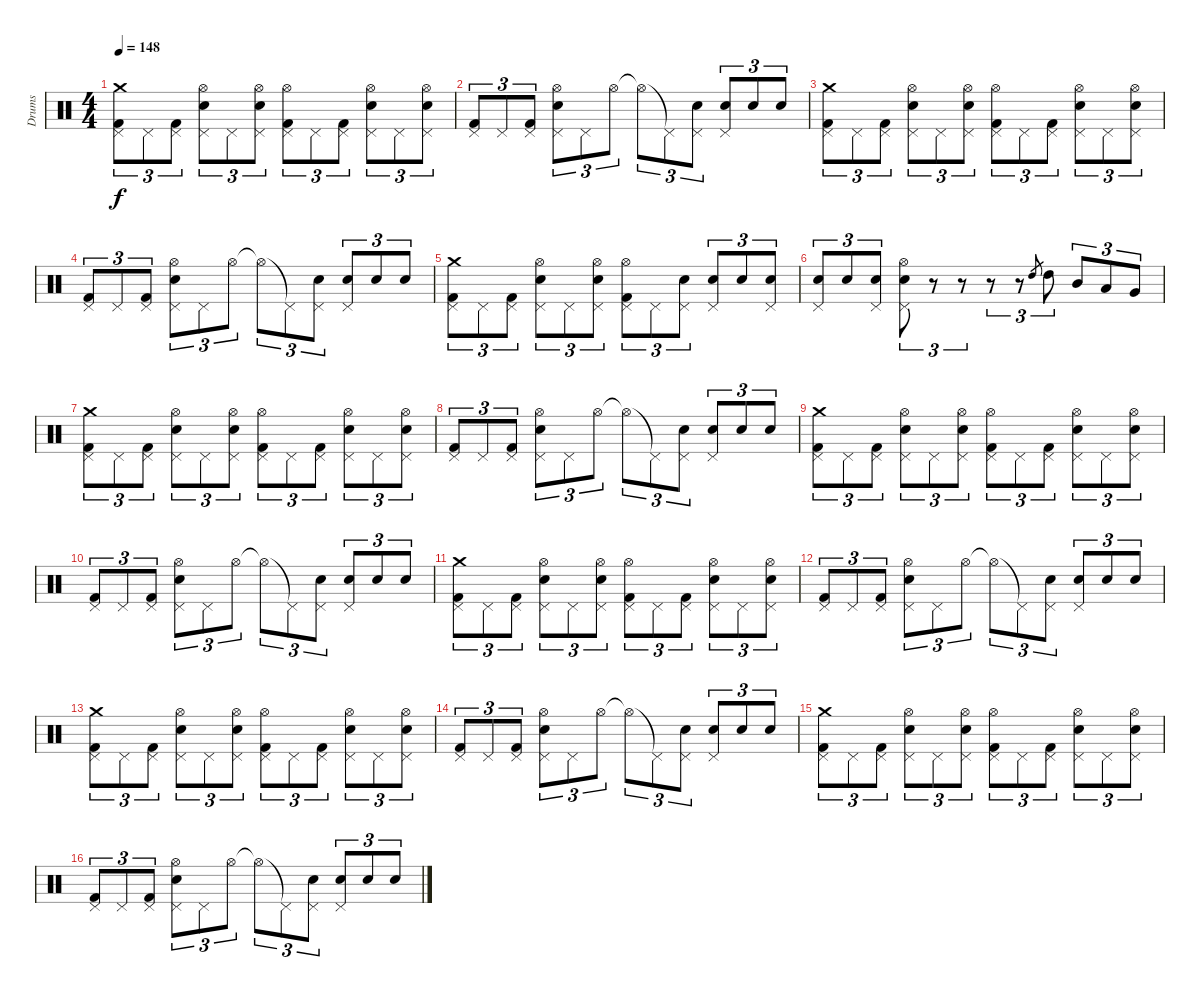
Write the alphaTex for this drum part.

\track ("Drums" "Drums") {instrument percussion}
\staff {score}
\articulation defaults
\ts (4 4)
\tempo 148
\clef neutral
\ks c
("Kick (hit) 2" "Pedal Hi-Hat (hit)" "Crash medium (hit)").8{tu (3 2) dy f} "Pedal Hi-Hat (hit)".8{tu (3 2)} ("Kick (hit) 2" "Pedal Hi-Hat (hit)").8{tu (3 2)} ("Snare (hit) 2" "Pedal Hi-Hat (hit)" "Hi-Hat (open)").8{tu (3 2)} "Pedal Hi-Hat (hit)".8{tu (3 2)} ("Snare (hit) 2" "Pedal Hi-Hat (hit)" "Hi-Hat (open)").8{tu (3 2)} ("Kick (hit) 2" "Pedal Hi-Hat (hit)" "Hi-Hat (open)").8{tu (3 2)} "Pedal Hi-Hat (hit)".8{tu (3 2)} ("Kick (hit) 2" "Pedal Hi-Hat (hit)").8{tu (3 2)} ("Snare (hit) 2" "Pedal Hi-Hat (hit)" "Hi-Hat (open)").8{tu (3 2)} "Pedal Hi-Hat (hit)".8{tu (3 2)} ("Snare (hit) 2" "Pedal Hi-Hat (hit)" "Hi-Hat (open)").8{tu (3 2)} |
("Kick (hit) 2" "Pedal Hi-Hat (hit)").8{tu (3 2)} "Pedal Hi-Hat (hit)".8{tu (3 2)} ("Kick (hit) 2" "Pedal Hi-Hat (hit)").8{tu (3 2)} ("Snare (hit) 2" "Pedal Hi-Hat (hit)" "Hi-Hat (open)").8{tu (3 2)} "Pedal Hi-Hat (hit)".8{tu (3 2)} "Hi-Hat (open)".8{tu (3 2)} "Hi-Hat (open)"{t}.8{tu (3 2)} "Pedal Hi-Hat (hit)"{t}.8{tu (3 2)} ("Snare (hit) 2" "Pedal Hi-Hat (hit)").8{tu (3 2)} ("Snare (hit) 2" "Pedal Hi-Hat (hit)").8{tu (3 2)} "Snare (hit) 2".8{tu (3 2)} "Snare (hit) 2".8{tu (3 2)} |
("Kick (hit) 2" "Pedal Hi-Hat (hit)" "Crash medium (hit)").8{tu (3 2)} "Pedal Hi-Hat (hit)".8{tu (3 2)} ("Kick (hit) 2" "Pedal Hi-Hat (hit)").8{tu (3 2)} ("Snare (hit) 2" "Pedal Hi-Hat (hit)" "Hi-Hat (open)").8{tu (3 2)} "Pedal Hi-Hat (hit)".8{tu (3 2)} ("Snare (hit) 2" "Pedal Hi-Hat (hit)" "Hi-Hat (open)").8{tu (3 2)} ("Kick (hit) 2" "Pedal Hi-Hat (hit)" "Hi-Hat (open)").8{tu (3 2)} "Pedal Hi-Hat (hit)".8{tu (3 2)} ("Kick (hit) 2" "Pedal Hi-Hat (hit)").8{tu (3 2)} ("Snare (hit) 2" "Pedal Hi-Hat (hit)" "Hi-Hat (open)").8{tu (3 2)} "Pedal Hi-Hat (hit)".8{tu (3 2)} ("Snare (hit) 2" "Pedal Hi-Hat (hit)" "Hi-Hat (open)").8{tu (3 2)} |
("Kick (hit) 2" "Pedal Hi-Hat (hit)").8{tu (3 2)} "Pedal Hi-Hat (hit)".8{tu (3 2)} ("Kick (hit) 2" "Pedal Hi-Hat (hit)").8{tu (3 2)} ("Snare (hit) 2" "Pedal Hi-Hat (hit)" "Hi-Hat (open)").8{tu (3 2)} "Pedal Hi-Hat (hit)".8{tu (3 2)} "Hi-Hat (open)".8{tu (3 2)} "Hi-Hat (open)"{t}.8{tu (3 2)} "Pedal Hi-Hat (hit)"{t}.8{tu (3 2)} ("Snare (hit) 2" "Pedal Hi-Hat (hit)").8{tu (3 2)} ("Snare (hit) 2" "Pedal Hi-Hat (hit)").8{tu (3 2)} "Snare (hit) 2".8{tu (3 2)} "Snare (hit) 2".8{tu (3 2)} |
("Kick (hit) 2" "Pedal Hi-Hat (hit)" "Crash medium (hit)").8{tu (3 2)} "Pedal Hi-Hat (hit)".8{tu (3 2)} ("Kick (hit) 2" "Pedal Hi-Hat (hit)").8{tu (3 2)} ("Snare (hit) 2" "Pedal Hi-Hat (hit)" "Hi-Hat (open)").8{tu (3 2)} "Pedal Hi-Hat (hit)".8{tu (3 2)} ("Snare (hit) 2" "Pedal Hi-Hat (hit)" "Hi-Hat (open)").8{tu (3 2)} ("Kick (hit) 2" "Pedal Hi-Hat (hit)" "Hi-Hat (open)").8{tu (3 2)} "Pedal Hi-Hat (hit)".8{tu (3 2)} ("Snare (hit) 2" "Pedal Hi-Hat (hit)").8{tu (3 2)} ("Snare (hit) 2" "Pedal Hi-Hat (hit)").8{tu (3 2)} "Snare (hit) 2".8{tu (3 2)} ("Snare (hit) 2" "Pedal Hi-Hat (hit)").8{tu (3 2)} |
("Snare (hit) 2" "Pedal Hi-Hat (hit)").8{tu (3 2)} "Snare (hit) 2".8{tu (3 2)} ("Snare (hit) 2" "Pedal Hi-Hat (hit)").8{tu (3 2)} ("Snare (hit) 2" "Pedal Hi-Hat (hit)" "Hi-Hat (open)").8{tu (3 2)} r.8{tu (3 2)} r.8{tu (3 2)} r.8{tu (3 2)} r.8{tu (3 2)} "High Tom (hit)".8{gr} "High Tom (hit)".8{tu (3 2)} "Mid Tom (hit)".8{tu (3 2)} "Low Tom (hit)".8{tu (3 2)} "Very Low Tom (hit)".8{tu (3 2)} |
("Kick (hit) 2" "Pedal Hi-Hat (hit)" "Crash medium (hit)").8{tu (3 2)} "Pedal Hi-Hat (hit)".8{tu (3 2)} ("Kick (hit) 2" "Pedal Hi-Hat (hit)").8{tu (3 2)} ("Snare (hit) 2" "Pedal Hi-Hat (hit)" "Hi-Hat (open)").8{tu (3 2)} "Pedal Hi-Hat (hit)".8{tu (3 2)} ("Snare (hit) 2" "Pedal Hi-Hat (hit)" "Hi-Hat (open)").8{tu (3 2)} ("Kick (hit) 2" "Pedal Hi-Hat (hit)" "Hi-Hat (open)").8{tu (3 2)} "Pedal Hi-Hat (hit)".8{tu (3 2)} ("Kick (hit) 2" "Pedal Hi-Hat (hit)").8{tu (3 2)} ("Snare (hit) 2" "Pedal Hi-Hat (hit)" "Hi-Hat (open)").8{tu (3 2)} "Pedal Hi-Hat (hit)".8{tu (3 2)} ("Snare (hit) 2" "Pedal Hi-Hat (hit)" "Hi-Hat (open)").8{tu (3 2)} |
("Kick (hit) 2" "Pedal Hi-Hat (hit)").8{tu (3 2)} "Pedal Hi-Hat (hit)".8{tu (3 2)} ("Kick (hit) 2" "Pedal Hi-Hat (hit)").8{tu (3 2)} ("Snare (hit) 2" "Pedal Hi-Hat (hit)" "Hi-Hat (open)").8{tu (3 2)} "Pedal Hi-Hat (hit)".8{tu (3 2)} "Hi-Hat (open)".8{tu (3 2)} "Hi-Hat (open)"{t}.8{tu (3 2)} "Pedal Hi-Hat (hit)"{t}.8{tu (3 2)} ("Snare (hit) 2" "Pedal Hi-Hat (hit)").8{tu (3 2)} ("Snare (hit) 2" "Pedal Hi-Hat (hit)").8{tu (3 2)} "Snare (hit) 2".8{tu (3 2)} "Snare (hit) 2".8{tu (3 2)} |
("Kick (hit) 2" "Pedal Hi-Hat (hit)" "Crash medium (hit)").8{tu (3 2)} "Pedal Hi-Hat (hit)".8{tu (3 2)} ("Kick (hit) 2" "Pedal Hi-Hat (hit)").8{tu (3 2)} ("Snare (hit) 2" "Pedal Hi-Hat (hit)" "Hi-Hat (open)").8{tu (3 2)} "Pedal Hi-Hat (hit)".8{tu (3 2)} ("Snare (hit) 2" "Pedal Hi-Hat (hit)" "Hi-Hat (open)").8{tu (3 2)} ("Kick (hit) 2" "Pedal Hi-Hat (hit)" "Hi-Hat (open)").8{tu (3 2)} "Pedal Hi-Hat (hit)".8{tu (3 2)} ("Kick (hit) 2" "Pedal Hi-Hat (hit)").8{tu (3 2)} ("Snare (hit) 2" "Pedal Hi-Hat (hit)" "Hi-Hat (open)").8{tu (3 2)} "Pedal Hi-Hat (hit)".8{tu (3 2)} ("Snare (hit) 2" "Pedal Hi-Hat (hit)" "Hi-Hat (open)").8{tu (3 2)} |
("Kick (hit) 2" "Pedal Hi-Hat (hit)").8{tu (3 2)} "Pedal Hi-Hat (hit)".8{tu (3 2)} ("Kick (hit) 2" "Pedal Hi-Hat (hit)").8{tu (3 2)} ("Snare (hit) 2" "Pedal Hi-Hat (hit)" "Hi-Hat (open)").8{tu (3 2)} "Pedal Hi-Hat (hit)".8{tu (3 2)} "Hi-Hat (open)".8{tu (3 2)} "Hi-Hat (open)"{t}.8{tu (3 2)} "Pedal Hi-Hat (hit)"{t}.8{tu (3 2)} ("Snare (hit) 2" "Pedal Hi-Hat (hit)").8{tu (3 2)} ("Snare (hit) 2" "Pedal Hi-Hat (hit)").8{tu (3 2)} "Snare (hit) 2".8{tu (3 2)} "Snare (hit) 2".8{tu (3 2)} |
("Kick (hit) 2" "Pedal Hi-Hat (hit)" "Crash medium (hit)").8{tu (3 2)} "Pedal Hi-Hat (hit)".8{tu (3 2)} ("Kick (hit) 2" "Pedal Hi-Hat (hit)").8{tu (3 2)} ("Snare (hit) 2" "Pedal Hi-Hat (hit)" "Hi-Hat (open)").8{tu (3 2)} "Pedal Hi-Hat (hit)".8{tu (3 2)} ("Snare (hit) 2" "Pedal Hi-Hat (hit)" "Hi-Hat (open)").8{tu (3 2)} ("Kick (hit) 2" "Pedal Hi-Hat (hit)" "Hi-Hat (open)").8{tu (3 2)} "Pedal Hi-Hat (hit)".8{tu (3 2)} ("Kick (hit) 2" "Pedal Hi-Hat (hit)").8{tu (3 2)} ("Snare (hit) 2" "Pedal Hi-Hat (hit)" "Hi-Hat (open)").8{tu (3 2)} "Pedal Hi-Hat (hit)".8{tu (3 2)} ("Snare (hit) 2" "Pedal Hi-Hat (hit)" "Hi-Hat (open)").8{tu (3 2)} |
("Kick (hit) 2" "Pedal Hi-Hat (hit)").8{tu (3 2)} "Pedal Hi-Hat (hit)".8{tu (3 2)} ("Kick (hit) 2" "Pedal Hi-Hat (hit)").8{tu (3 2)} ("Snare (hit) 2" "Pedal Hi-Hat (hit)" "Hi-Hat (open)").8{tu (3 2)} "Pedal Hi-Hat (hit)".8{tu (3 2)} "Hi-Hat (open)".8{tu (3 2)} "Hi-Hat (open)"{t}.8{tu (3 2)} "Pedal Hi-Hat (hit)"{t}.8{tu (3 2)} ("Snare (hit) 2" "Pedal Hi-Hat (hit)").8{tu (3 2)} ("Snare (hit) 2" "Pedal Hi-Hat (hit)").8{tu (3 2)} "Snare (hit) 2".8{tu (3 2)} "Snare (hit) 2".8{tu (3 2)} |
("Kick (hit) 2" "Pedal Hi-Hat (hit)" "Crash medium (hit)").8{tu (3 2)} "Pedal Hi-Hat (hit)".8{tu (3 2)} ("Kick (hit) 2" "Pedal Hi-Hat (hit)").8{tu (3 2)} ("Snare (hit) 2" "Pedal Hi-Hat (hit)" "Hi-Hat (open)").8{tu (3 2)} "Pedal Hi-Hat (hit)".8{tu (3 2)} ("Snare (hit) 2" "Pedal Hi-Hat (hit)" "Hi-Hat (open)").8{tu (3 2)} ("Kick (hit) 2" "Pedal Hi-Hat (hit)" "Hi-Hat (open)").8{tu (3 2)} "Pedal Hi-Hat (hit)".8{tu (3 2)} ("Kick (hit) 2" "Pedal Hi-Hat (hit)").8{tu (3 2)} ("Snare (hit) 2" "Pedal Hi-Hat (hit)" "Hi-Hat (open)").8{tu (3 2)} "Pedal Hi-Hat (hit)".8{tu (3 2)} ("Snare (hit) 2" "Pedal Hi-Hat (hit)" "Hi-Hat (open)").8{tu (3 2)} |
("Kick (hit) 2" "Pedal Hi-Hat (hit)").8{tu (3 2)} "Pedal Hi-Hat (hit)".8{tu (3 2)} ("Kick (hit) 2" "Pedal Hi-Hat (hit)").8{tu (3 2)} ("Snare (hit) 2" "Pedal Hi-Hat (hit)" "Hi-Hat (open)").8{tu (3 2)} "Pedal Hi-Hat (hit)".8{tu (3 2)} "Hi-Hat (open)".8{tu (3 2)} "Hi-Hat (open)"{t}.8{tu (3 2)} "Pedal Hi-Hat (hit)"{t}.8{tu (3 2)} ("Snare (hit) 2" "Pedal Hi-Hat (hit)").8{tu (3 2)} ("Snare (hit) 2" "Pedal Hi-Hat (hit)").8{tu (3 2)} "Snare (hit) 2".8{tu (3 2)} "Snare (hit) 2".8{tu (3 2)} |
("Kick (hit) 2" "Pedal Hi-Hat (hit)" "Crash medium (hit)").8{tu (3 2)} "Pedal Hi-Hat (hit)".8{tu (3 2)} ("Kick (hit) 2" "Pedal Hi-Hat (hit)").8{tu (3 2)} ("Snare (hit) 2" "Pedal Hi-Hat (hit)" "Hi-Hat (open)").8{tu (3 2)} "Pedal Hi-Hat (hit)".8{tu (3 2)} ("Snare (hit) 2" "Pedal Hi-Hat (hit)" "Hi-Hat (open)").8{tu (3 2)} ("Kick (hit) 2" "Pedal Hi-Hat (hit)" "Hi-Hat (open)").8{tu (3 2)} "Pedal Hi-Hat (hit)".8{tu (3 2)} ("Kick (hit) 2" "Pedal Hi-Hat (hit)").8{tu (3 2)} ("Snare (hit) 2" "Pedal Hi-Hat (hit)" "Hi-Hat (open)").8{tu (3 2)} "Pedal Hi-Hat (hit)".8{tu (3 2)} ("Snare (hit) 2" "Pedal Hi-Hat (hit)" "Hi-Hat (open)").8{tu (3 2)} |
("Kick (hit) 2" "Pedal Hi-Hat (hit)").8{tu (3 2)} "Pedal Hi-Hat (hit)".8{tu (3 2)} ("Kick (hit) 2" "Pedal Hi-Hat (hit)").8{tu (3 2)} ("Snare (hit) 2" "Pedal Hi-Hat (hit)" "Hi-Hat (open)").8{tu (3 2)} "Pedal Hi-Hat (hit)".8{tu (3 2)} "Hi-Hat (open)".8{tu (3 2)} "Hi-Hat (open)"{t}.8{tu (3 2)} "Pedal Hi-Hat (hit)"{t}.8{tu (3 2)} ("Snare (hit) 2" "Pedal Hi-Hat (hit)").8{tu (3 2)} ("Snare (hit) 2" "Pedal Hi-Hat (hit)").8{tu (3 2)} "Snare (hit) 2".8{tu (3 2)} "Snare (hit) 2".8{tu (3 2)}
